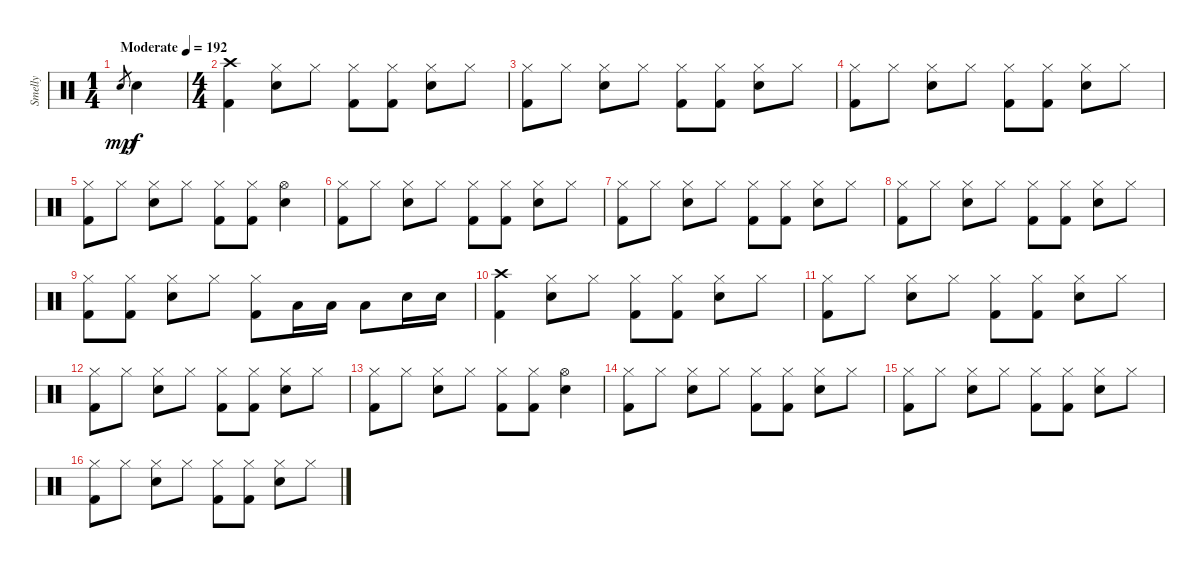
\track ("Smelly" "Smelly") {instrument percussion}
\staff {score}
\articulation defaults
\ts (1 4)
\tempo (192 "Moderate")
\clef neutral
\ks c "Electric Snare (hit)".8{gr dy mp} "Electric Snare (hit)".4{dy f}
|
\ts (4 4)
("Crash high (hit)" "Kick (hit) 2").4 ("Hi-Hat (closed)" "Electric Snare (hit)").8 "Hi-Hat (closed)".8 ("Hi-Hat (closed)" "Kick (hit) 2").8 ("Hi-Hat (closed)" "Kick (hit) 2").8 ("Hi-Hat (closed)" "Electric Snare (hit)").8 "Hi-Hat (closed)".8 |
("Hi-Hat (closed)" "Kick (hit) 2").8 "Hi-Hat (closed)".8 ("Hi-Hat (closed)" "Electric Snare (hit)").8 "Hi-Hat (closed)".8 ("Hi-Hat (closed)" "Kick (hit) 2").8 ("Hi-Hat (closed)" "Kick (hit) 2").8 ("Hi-Hat (closed)" "Electric Snare (hit)").8 "Hi-Hat (closed)".8 |
("Hi-Hat (closed)" "Kick (hit) 2").8 "Hi-Hat (closed)".8 ("Hi-Hat (closed)" "Electric Snare (hit)").8 "Hi-Hat (closed)".8 ("Hi-Hat (closed)" "Kick (hit) 2").8 ("Hi-Hat (closed)" "Kick (hit) 2").8 ("Hi-Hat (closed)" "Electric Snare (hit)").8 "Hi-Hat (closed)".8 |
("Hi-Hat (closed)" "Kick (hit) 2").8 "Hi-Hat (closed)".8 ("Hi-Hat (closed)" "Electric Snare (hit)").8 "Hi-Hat (closed)".8 ("Hi-Hat (closed)" "Kick (hit) 2").8 ("Hi-Hat (closed)" "Kick (hit) 2").8 ("Hi-Hat (open)" "Electric Snare (hit)").4 |
("Hi-Hat (closed)" "Kick (hit) 2").8 "Hi-Hat (closed)".8 ("Hi-Hat (closed)" "Electric Snare (hit)").8 "Hi-Hat (closed)".8 ("Hi-Hat (closed)" "Kick (hit) 2").8 ("Hi-Hat (closed)" "Kick (hit) 2").8 ("Hi-Hat (closed)" "Electric Snare (hit)").8 "Hi-Hat (closed)".8 |
("Hi-Hat (closed)" "Kick (hit) 2").8 "Hi-Hat (closed)".8 ("Hi-Hat (closed)" "Electric Snare (hit)").8 "Hi-Hat (closed)".8 ("Hi-Hat (closed)" "Kick (hit) 2").8 ("Hi-Hat (closed)" "Kick (hit) 2").8 ("Hi-Hat (closed)" "Electric Snare (hit)").8 "Hi-Hat (closed)".8 |
("Hi-Hat (closed)" "Kick (hit) 2").8 "Hi-Hat (closed)".8 ("Hi-Hat (closed)" "Electric Snare (hit)").8 "Hi-Hat (closed)".8 ("Hi-Hat (closed)" "Kick (hit) 2").8 ("Hi-Hat (closed)" "Kick (hit) 2").8 ("Hi-Hat (closed)" "Electric Snare (hit)").8 "Hi-Hat (closed)".8 |
("Hi-Hat (closed)" "Kick (hit) 2").8 ("Hi-Hat (closed)" "Kick (hit) 2").8 ("Hi-Hat (closed)" "Electric Snare (hit)").8 "Hi-Hat (closed)".8 ("Hi-Hat (closed)" "Kick (hit) 2").8 "Low Tom (hit)".16 "Low Tom (hit)".16 "Low Tom (hit)".8 "Electric Snare (hit)".16 "Electric Snare (hit)".16 |
("Crash high (hit)" "Kick (hit) 2").4 ("Hi-Hat (closed)" "Electric Snare (hit)").8 "Hi-Hat (closed)".8 ("Hi-Hat (closed)" "Kick (hit) 2").8 ("Hi-Hat (closed)" "Kick (hit) 2").8 ("Hi-Hat (closed)" "Electric Snare (hit)").8 "Hi-Hat (closed)".8 |
("Hi-Hat (closed)" "Kick (hit) 2").8 "Hi-Hat (closed)".8 ("Hi-Hat (closed)" "Electric Snare (hit)").8 "Hi-Hat (closed)".8 ("Hi-Hat (closed)" "Kick (hit) 2").8 ("Hi-Hat (closed)" "Kick (hit) 2").8 ("Hi-Hat (closed)" "Electric Snare (hit)").8 "Hi-Hat (closed)".8 |
("Hi-Hat (closed)" "Kick (hit) 2").8 "Hi-Hat (closed)".8 ("Hi-Hat (closed)" "Electric Snare (hit)").8 "Hi-Hat (closed)".8 ("Hi-Hat (closed)" "Kick (hit) 2").8 ("Hi-Hat (closed)" "Kick (hit) 2").8 ("Hi-Hat (closed)" "Electric Snare (hit)").8 "Hi-Hat (closed)".8 |
("Hi-Hat (closed)" "Kick (hit) 2").8 "Hi-Hat (closed)".8 ("Hi-Hat (closed)" "Electric Snare (hit)").8 "Hi-Hat (closed)".8 ("Hi-Hat (closed)" "Kick (hit) 2").8 ("Hi-Hat (closed)" "Kick (hit) 2").8 ("Hi-Hat (open)" "Electric Snare (hit)").4 |
("Hi-Hat (closed)" "Kick (hit) 2").8 "Hi-Hat (closed)".8 ("Hi-Hat (closed)" "Electric Snare (hit)").8 "Hi-Hat (closed)".8 ("Hi-Hat (closed)" "Kick (hit) 2").8 ("Hi-Hat (closed)" "Kick (hit) 2").8 ("Hi-Hat (closed)" "Electric Snare (hit)").8 "Hi-Hat (closed)".8 |
("Hi-Hat (closed)" "Kick (hit) 2").8 "Hi-Hat (closed)".8 ("Hi-Hat (closed)" "Electric Snare (hit)").8 "Hi-Hat (closed)".8 ("Hi-Hat (closed)" "Kick (hit) 2").8 ("Hi-Hat (closed)" "Kick (hit) 2").8 ("Hi-Hat (closed)" "Electric Snare (hit)").8 "Hi-Hat (closed)".8 |
("Hi-Hat (closed)" "Kick (hit) 2").8 "Hi-Hat (closed)".8 ("Hi-Hat (closed)" "Electric Snare (hit)").8 "Hi-Hat (closed)".8 ("Hi-Hat (closed)" "Kick (hit) 2").8 ("Hi-Hat (closed)" "Kick (hit) 2").8 ("Hi-Hat (closed)" "Electric Snare (hit)").8 "Hi-Hat (closed)".8
